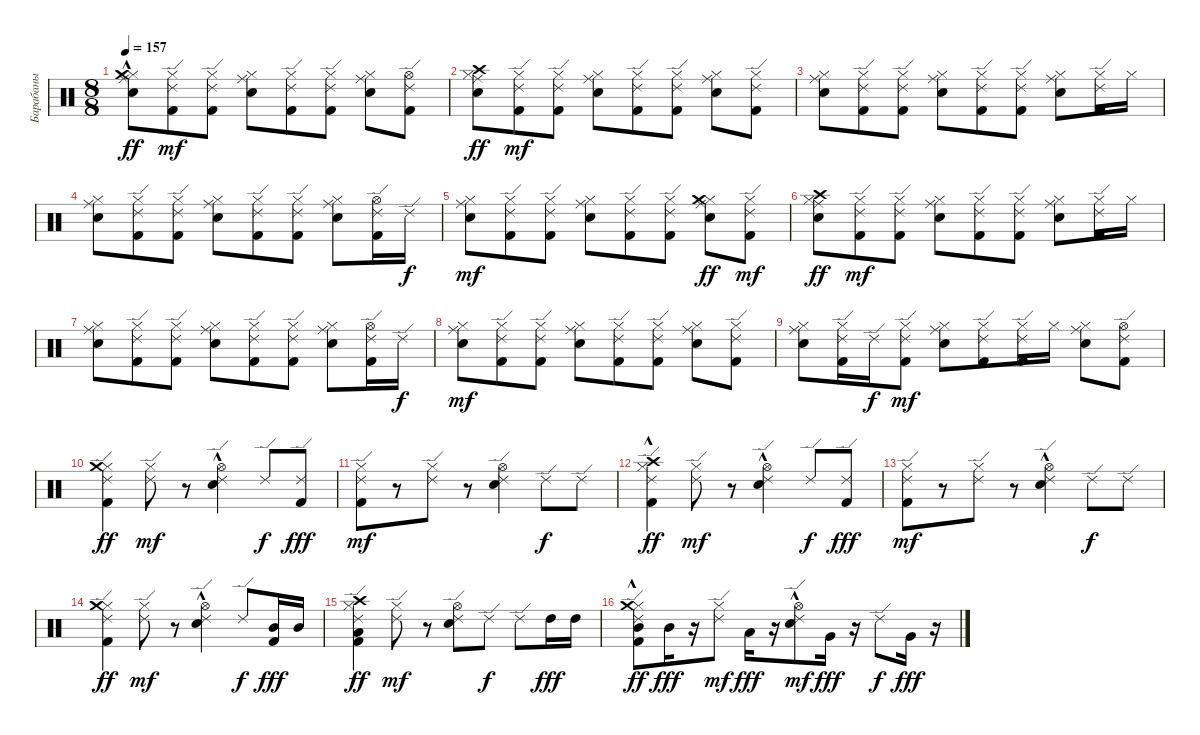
\track ("Барабаны" "Барабаны") {instrument percussion}
\staff {score}
\articulation defaults
\ts (8 8)
\tempo 157
\clef neutral
\ks c
("Snare (hit) 2" "Hi-Hat (closed)" "Ride (middle)" "Crash medium (hit)"{hac}).8{dy ff} ("Kick (hit) 2" "Hi-Hat (closed)" "Ride (edge) 2").8{dy mf} ("Kick (hit) 2" "Hi-Hat (closed)" "Ride (edge) 2").8 ("Snare (hit) 2" "Hi-Hat (closed)" "Ride (middle)").8 ("Kick (hit) 2" "Hi-Hat (closed)" "Ride (edge) 2").8 ("Kick (hit) 2" "Hi-Hat (closed)" "Ride (edge) 2").8 ("Snare (hit) 2" "Hi-Hat (closed)" "Ride (middle)").8 ("Kick (hit) 2" "Hi-Hat (open)" "Ride (edge) 2").8 |
("Snare (hit) 2" "Hi-Hat (closed)" "Ride (middle)" "Crash high (hit)").8{dy ff} ("Kick (hit) 2" "Hi-Hat (closed)" "Ride (edge) 2").8{dy mf} ("Kick (hit) 2" "Hi-Hat (closed)" "Ride (edge) 2").8 ("Snare (hit) 2" "Hi-Hat (closed)" "Ride (middle)").8 ("Kick (hit) 2" "Hi-Hat (closed)" "Ride (edge) 2").8 ("Kick (hit) 2" "Hi-Hat (closed)" "Ride (edge) 2").8 ("Snare (hit) 2" "Hi-Hat (closed)" "Ride (middle)").8 ("Kick (hit) 2" "Hi-Hat (closed)" "Ride (edge) 2").8 |
("Snare (hit) 2" "Hi-Hat (closed)" "Ride (middle)").8 ("Kick (hit) 2" "Hi-Hat (closed)" "Ride (edge) 2").8 ("Kick (hit) 2" "Hi-Hat (closed)" "Ride (edge) 2").8 ("Snare (hit) 2" "Hi-Hat (closed)" "Ride (middle)").8 ("Kick (hit) 2" "Hi-Hat (closed)" "Ride (edge) 2").8 ("Kick (hit) 2" "Hi-Hat (closed)" "Ride (edge) 2").8 ("Snare (hit) 2" "Hi-Hat (closed)" "Ride (middle)").8 ("Kick (hit) 2" "Hi-Hat (closed)" "Ride (edge) 2").16 "Hi-Hat (closed)".16 |
("Snare (hit) 2" "Hi-Hat (closed)" "Ride (middle)").8 ("Kick (hit) 2" "Hi-Hat (closed)" "Ride (edge) 2").8 ("Kick (hit) 2" "Hi-Hat (closed)" "Ride (edge) 2").8 ("Snare (hit) 2" "Hi-Hat (closed)" "Ride (middle)").8 ("Kick (hit) 2" "Hi-Hat (closed)" "Ride (edge) 2").8 ("Kick (hit) 2" "Hi-Hat (closed)" "Ride (edge) 2").8 ("Snare (hit) 2" "Hi-Hat (closed)" "Ride (middle)").8 ("Kick (hit) 2" "Hi-Hat (open)" "Ride (edge) 2").16 "Ride (edge) 2".16{dy f} |
("Snare (hit) 2" "Hi-Hat (closed)" "Ride (middle)").8{dy mf} ("Kick (hit) 2" "Hi-Hat (closed)" "Ride (edge) 2").8 ("Kick (hit) 2" "Hi-Hat (closed)" "Ride (edge) 2").8 ("Snare (hit) 2" "Hi-Hat (closed)" "Ride (middle)").8 ("Kick (hit) 2" "Hi-Hat (closed)" "Ride (edge) 2").8 ("Kick (hit) 2" "Hi-Hat (closed)" "Ride (edge) 2").8 ("Snare (hit) 2" "Hi-Hat (closed)" "Ride (middle)" "Crash medium (hit)").8{dy ff} ("Kick (hit) 2" "Hi-Hat (closed)" "Ride (edge) 2").8{dy mf} |
("Snare (hit) 2" "Hi-Hat (closed)" "Ride (middle)" "Crash high (hit)").8{dy ff} ("Kick (hit) 2" "Hi-Hat (closed)" "Ride (edge) 2").8{dy mf} ("Kick (hit) 2" "Hi-Hat (closed)" "Ride (edge) 2").8 ("Snare (hit) 2" "Hi-Hat (closed)" "Ride (middle)").8 ("Kick (hit) 2" "Hi-Hat (closed)" "Ride (edge) 2").8 ("Kick (hit) 2" "Hi-Hat (closed)" "Ride (edge) 2").8 ("Snare (hit) 2" "Hi-Hat (closed)" "Ride (middle)").8 ("Kick (hit) 2" "Hi-Hat (closed)" "Ride (edge) 2").16 "Hi-Hat (closed)".16 |
("Snare (hit) 2" "Hi-Hat (closed)" "Ride (middle)").8 ("Kick (hit) 2" "Hi-Hat (closed)" "Ride (edge) 2").8 ("Kick (hit) 2" "Hi-Hat (closed)" "Ride (edge) 2").8 ("Snare (hit) 2" "Hi-Hat (closed)" "Ride (middle)").8 ("Kick (hit) 2" "Hi-Hat (closed)" "Ride (edge) 2").8 ("Kick (hit) 2" "Hi-Hat (closed)" "Ride (edge) 2").8 ("Snare (hit) 2" "Hi-Hat (closed)" "Ride (middle)").8 ("Kick (hit) 2" "Hi-Hat (open)" "Ride (edge) 2").16 "Ride (edge) 2".16{dy f} |
("Snare (hit) 2" "Hi-Hat (closed)" "Ride (middle)").8{dy mf} ("Kick (hit) 2" "Hi-Hat (closed)" "Ride (edge) 2").8 ("Kick (hit) 2" "Hi-Hat (closed)" "Ride (edge) 2").8 ("Snare (hit) 2" "Hi-Hat (closed)" "Ride (middle)").8 ("Kick (hit) 2" "Hi-Hat (closed)" "Ride (edge) 2").8 ("Kick (hit) 2" "Hi-Hat (closed)" "Ride (edge) 2").8 ("Snare (hit) 2" "Hi-Hat (closed)" "Ride (middle)").8 ("Kick (hit) 2" "Hi-Hat (closed)" "Ride (edge) 2").8 |
("Snare (hit) 2" "Hi-Hat (closed)" "Ride (middle)").8 ("Kick (hit) 2" "Hi-Hat (closed)" "Ride (edge) 2").16 "Ride (edge) 2".16{dy f} ("Kick (hit) 2" "Hi-Hat (closed)" "Ride (edge) 2").8{dy mf} ("Snare (hit) 2" "Hi-Hat (closed)" "Ride (middle)").8 ("Kick (hit) 2" "Hi-Hat (closed)" "Ride (edge) 2").8 ("Kick (hit) 2" "Hi-Hat (closed)" "Ride (edge) 2").16 "Hi-Hat (closed)".16 ("Snare (hit) 2" "Hi-Hat (closed)" "Ride (middle)").8 ("Kick (hit) 2" "Hi-Hat (open)" "Ride (edge) 2").8 |
("Kick (hit) 2" "Hi-Hat (closed)" "Ride (edge) 2" "Crash medium (hit)").4{dy ff} ("Hi-Hat (closed)" "Ride (edge) 2").8{dy mf} r.8 ("Snare (hit) 2" "Hi-Hat (open)"{hac} "Ride (edge) 2").4 "Ride (edge) 2".8{dy f} ("Kick (hit) 2" "Ride (edge) 2").8{dy fff} |
("Kick (hit) 2" "Hi-Hat (closed)" "Ride (edge) 2").8{dy mf} r.8 ("Hi-Hat (closed)" "Ride (edge) 2").8 r.8 ("Snare (hit) 2" "Hi-Hat (open)" "Ride (edge) 2").4 "Ride (edge) 2".8{dy f} "Ride (edge) 2".8 |
("Kick (hit) 2" "Hi-Hat (closed)" "Ride (edge) 2" "Crash high (hit)"{hac}).4{dy ff} ("Hi-Hat (closed)" "Ride (edge) 2").8{dy mf} r.8 ("Snare (hit) 2" "Hi-Hat (open)"{hac} "Ride (edge) 2").4 "Ride (edge) 2".8{dy f} ("Kick (hit) 2" "Ride (edge) 2").8{dy fff} |
("Kick (hit) 2" "Hi-Hat (closed)" "Ride (edge) 2").8{dy mf} r.8 ("Hi-Hat (closed)" "Ride (edge) 2").8 r.8 ("Snare (hit) 2" "Hi-Hat (open)"{hac} "Ride (edge) 2").4 "Ride (edge) 2".8{dy f} "Ride (edge) 2".8 |
("Kick (hit) 2" "Hi-Hat (closed)" "Ride (edge) 2" "Crash medium (hit)").4{dy ff} ("Hi-Hat (closed)" "Ride (edge) 2").8{dy mf} r.8 ("Snare (hit) 2" "Hi-Hat (open)"{hac} "Ride (edge) 2").4 "Ride (edge) 2".8{dy f} ("Kick (hit) 2" "Mid Tom (hit)").16{dy fff} "Mid Tom (hit)".16 |
("Kick (hit) 2" "Hi-Hat (closed)" "Ride (edge) 2" "Low Tom (hit)" "Crash high (hit)").4{dy ff} ("Hi-Hat (closed)" "Ride (edge) 2").8{dy mf} r.8 ("Snare (hit) 2" "Hi-Hat (open)" "Ride (edge) 2").8 "Ride (edge) 2".8{dy f} "Ride (edge) 2".8 "High Tom (hit)".16{dy fff} "High Tom (hit)".16 |
("Kick (hit) 2" "Hi-Hat (closed)" "Ride (edge) 2" "Mid Tom (hit)" "Crash medium (hit)"{hac}).8{dy ff} "Mid Tom (hit)".16{dy fff} r.16 ("Hi-Hat (closed)" "Ride (edge) 2").8{dy mf} "Low Tom (hit)".16{dy fff} r.16 ("Snare (hit) 2" "Hi-Hat (open)"{hac} "Ride (edge) 2").8{dy mf} "Very Low Tom (hit)".16{dy fff} r.16 "Ride (edge) 2".8{dy f} "Very Low Tom (hit)".16{dy fff} r.16
